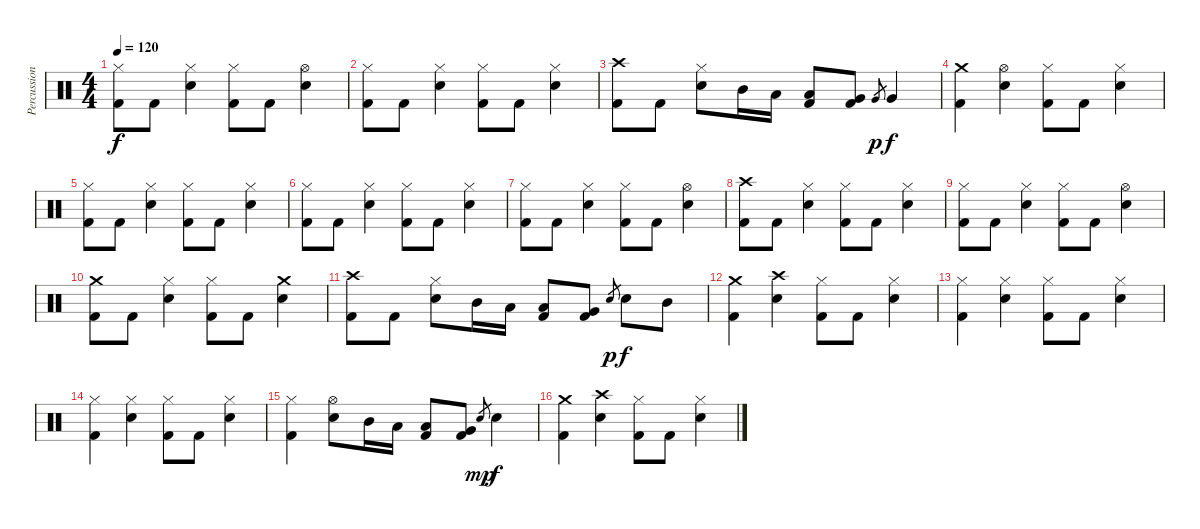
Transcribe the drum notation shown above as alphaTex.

\track ("Percussion" "Percussion") {instrument percussion}
\staff {score}
\articulation defaults
\ts (4 4)
\tempo 120
\clef neutral
\ks c
("Hi-Hat (closed)" "Kick (hit) 2").8{dy f} "Kick (hit) 2".8 ("Hi-Hat (closed)" "Snare (hit) 2").4 ("Hi-Hat (closed)" "Kick (hit) 2").8 "Kick (hit) 2".8 ("Hi-Hat (open)" "Snare (hit) 2").4 |
("Hi-Hat (closed)" "Kick (hit) 2").8 "Kick (hit) 2".8 ("Hi-Hat (closed)" "Snare (hit) 2").4 ("Hi-Hat (closed)" "Kick (hit) 2").8 "Kick (hit) 2".8 ("Hi-Hat (closed)" "Snare (hit) 2").4 |
("Crash high (hit)" "Kick (hit) 2").8 "Kick (hit) 2".8 ("Hi-Hat (closed)" "Snare (hit) 2").8 "Mid Tom (hit)".16 "Low Tom (hit)".16 ("Low Tom (hit)" "Kick (hit) 2").8 ("Very Low Tom (hit)" "Kick (hit) 2").8 "Very Low Tom (hit)".8{gr dy p} "Very Low Tom (hit)".4{dy f} |
("Crash medium (hit)" "Kick (hit) 2").4 ("Hi-Hat (open)" "Snare (hit) 2").4 ("Hi-Hat (closed)" "Kick (hit) 2").8 "Kick (hit) 2".8 ("Hi-Hat (closed)" "Snare (hit) 2").4 |
("Hi-Hat (closed)" "Kick (hit) 2").8 "Kick (hit) 2".8 ("Hi-Hat (closed)" "Snare (hit) 2").4 ("Hi-Hat (closed)" "Kick (hit) 2").8 "Kick (hit) 2".8 ("Hi-Hat (closed)" "Snare (hit) 2").4 |
("Hi-Hat (closed)" "Kick (hit) 2").8 "Kick (hit) 2".8 ("Hi-Hat (closed)" "Snare (hit) 2").4 ("Hi-Hat (closed)" "Kick (hit) 2").8 "Kick (hit) 2".8 ("Hi-Hat (closed)" "Snare (hit) 2").4 |
("Hi-Hat (closed)" "Kick (hit) 2").8 "Kick (hit) 2".8 ("Hi-Hat (closed)" "Snare (hit) 2").4 ("Hi-Hat (closed)" "Kick (hit) 2").8 "Kick (hit) 2".8 ("Hi-Hat (open)" "Snare (hit) 2").4 |
("Crash high (hit)" "Kick (hit) 2").8 "Kick (hit) 2".8 ("Hi-Hat (closed)" "Snare (hit) 2").4 ("Hi-Hat (closed)" "Kick (hit) 2").8 "Kick (hit) 2".8 ("Hi-Hat (closed)" "Snare (hit) 2").4 |
("Hi-Hat (closed)" "Kick (hit) 2").8 "Kick (hit) 2".8 ("Hi-Hat (closed)" "Snare (hit) 2").4 ("Hi-Hat (closed)" "Kick (hit) 2").8 "Kick (hit) 2".8 ("Hi-Hat (open)" "Snare (hit) 2").4 |
("Crash medium (hit)" "Kick (hit) 2").8 "Kick (hit) 2".8 ("Hi-Hat (closed)" "Snare (hit) 2").4 ("Hi-Hat (closed)" "Kick (hit) 2").8 "Kick (hit) 2".8 ("Crash medium (hit)" "Snare (hit) 2").4 |
("Crash high (hit)" "Kick (hit) 2").8 "Kick (hit) 2".8 ("Hi-Hat (closed)" "Snare (hit) 2").8 "Mid Tom (hit)".16 "Low Tom (hit)".16 ("Low Tom (hit)" "Kick (hit) 2").8 ("Very Low Tom (hit)" "Kick (hit) 2").8 "Snare (hit) 2".8{gr dy p} "Snare (hit) 2".8{dy f} "Mid Tom (hit)".8 |
("Crash medium (hit)" "Kick (hit) 2").4 ("Crash high (hit)" "Snare (hit) 2").4 ("Hi-Hat (closed)" "Kick (hit) 2").8 "Kick (hit) 2".8 ("Hi-Hat (closed)" "Snare (hit) 2").4 |
("Hi-Hat (closed)" "Kick (hit) 2").4 ("Hi-Hat (closed)" "Snare (hit) 2").4 ("Hi-Hat (closed)" "Kick (hit) 2").8 "Kick (hit) 2".8 ("Hi-Hat (closed)" "Snare (hit) 2").4 |
("Hi-Hat (closed)" "Kick (hit) 2").4 ("Hi-Hat (closed)" "Snare (hit) 2").4 ("Hi-Hat (closed)" "Kick (hit) 2").8 "Kick (hit) 2".8 ("Hi-Hat (closed)" "Snare (hit) 2").4 |
("Hi-Hat (closed)" "Kick (hit) 2").4 ("Hi-Hat (open)" "Snare (hit) 2").8 "Mid Tom (hit)".16 "Low Tom (hit)".16 ("Low Tom (hit)" "Kick (hit) 2").8 ("Very Low Tom (hit)" "Kick (hit) 2").8 "Snare (hit) 2".8{gr dy mp} "Snare (hit) 2".4{dy f} |
("Crash medium (hit)" "Kick (hit) 2").4 ("Crash high (hit)" "Snare (hit) 2").4 ("Hi-Hat (closed)" "Kick (hit) 2").8 "Kick (hit) 2".8 ("Hi-Hat (closed)" "Snare (hit) 2").4
